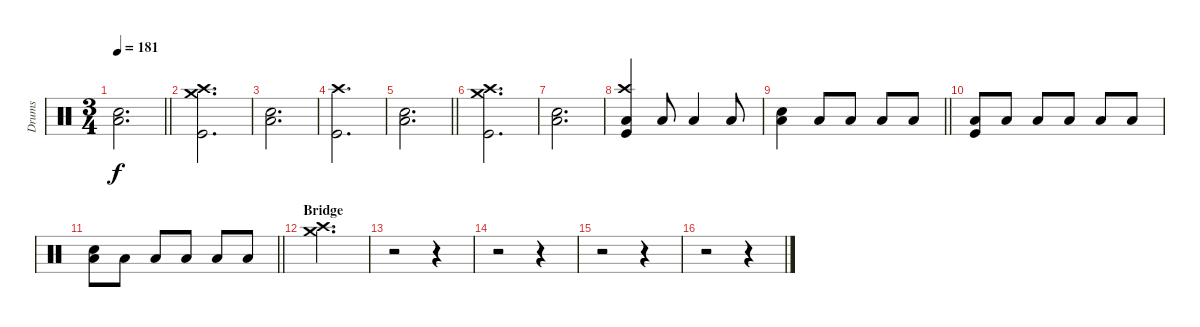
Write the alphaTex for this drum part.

\track ("Drums" "Drums") {instrument percussion}
\staff {score}
\articulation defaults
\ts (3 4)
\tempo 181
\clef neutral
\barLineRight lightlight
\ks c
("Electric Snare (hit)" "Low Floor Tom (hit)").2{d dy f} |
("Crash high (hit)" "Crash medium (hit)" "Kick (hit)").2{d} |
("Electric Snare (hit)" "Low Floor Tom (hit)").2{d} |
("Crash high (hit)" "Kick (hit)").2{d} |
\barLineRight lightlight
("Electric Snare (hit)" "Low Floor Tom (hit)").2{d} |
("Crash high (hit)" "Crash medium (hit)" "Kick (hit)").2{d} |
("Electric Snare (hit)" "Low Floor Tom (hit)").2{d} |
("Crash high (hit)" "Low Floor Tom (hit)" "Kick (hit)").4 "Low Floor Tom (hit)".8 "Low Floor Tom (hit)".4 "Low Floor Tom (hit)".8 |
\barLineRight lightlight
("Electric Snare (hit)" "Low Floor Tom (hit)").4 "Low Floor Tom (hit)".8 "Low Floor Tom (hit)".8 "Low Floor Tom (hit)".8 "Low Floor Tom (hit)".8 |
("Low Floor Tom (hit)" "Kick (hit)").8 "Low Floor Tom (hit)".8 "Low Floor Tom (hit)".8 "Low Floor Tom (hit)".8 "Low Floor Tom (hit)".8 "Low Floor Tom (hit)".8 |
\barLineRight lightlight
("Electric Snare (hit)" "Low Floor Tom (hit)").8 "Low Floor Tom (hit)".8 "Low Floor Tom (hit)".8 "Low Floor Tom (hit)".8 "Low Floor Tom (hit)".8 "Low Floor Tom (hit)".8 |
\section ("" "Bridge")
("Crash high (hit)" "Crash medium (hit)").2{d} |
r.2 r.4 |
r.2 r.4 |
r.2 r.4 |
r.2 r.4
